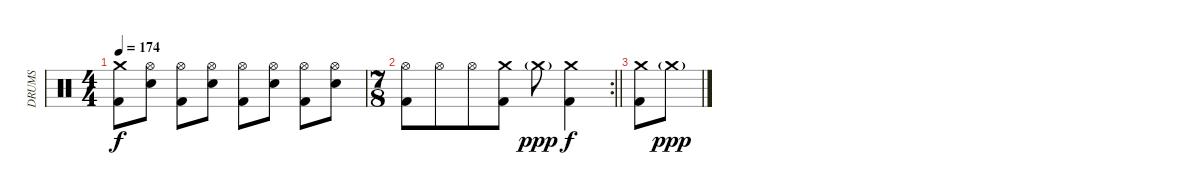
\track ("DRUMS" "DRUMS") {instrument percussion}
\staff {score}
\articulation defaults
\ts (4 4)
\tempo 174
\clef neutral
\ks c
("Crash medium (hit)" "Kick (hit) 2").8{dy f} ("Hi-Hat (open)" "Snare (hit) 2").8 ("Hi-Hat (open)" "Kick (hit) 2").8 ("Hi-Hat (open)" "Snare (hit) 2").8 ("Hi-Hat (open)" "Kick (hit) 2").8 ("Hi-Hat (open)" "Snare (hit) 2").8 ("Hi-Hat (open)" "Kick (hit) 2").8 ("Hi-Hat (open)" "Snare (hit) 2").8 |
\rc 2
\ts (7 8)
\barLineRight lightlight
("Hi-Hat (open)" "Kick (hit) 2").8 "Hi-Hat (open)".8 "Hi-Hat (open)".8 ("Crash medium (hit)" "Kick (hit) 2").8 "Crash medium (hit)"{g}.8{dy ppp} ("Crash medium (hit)" "Kick (hit) 2").4{dy f} |
("Crash medium (hit)" "Kick (hit) 2").8 "Crash medium (hit)"{g}.8{dy ppp}
